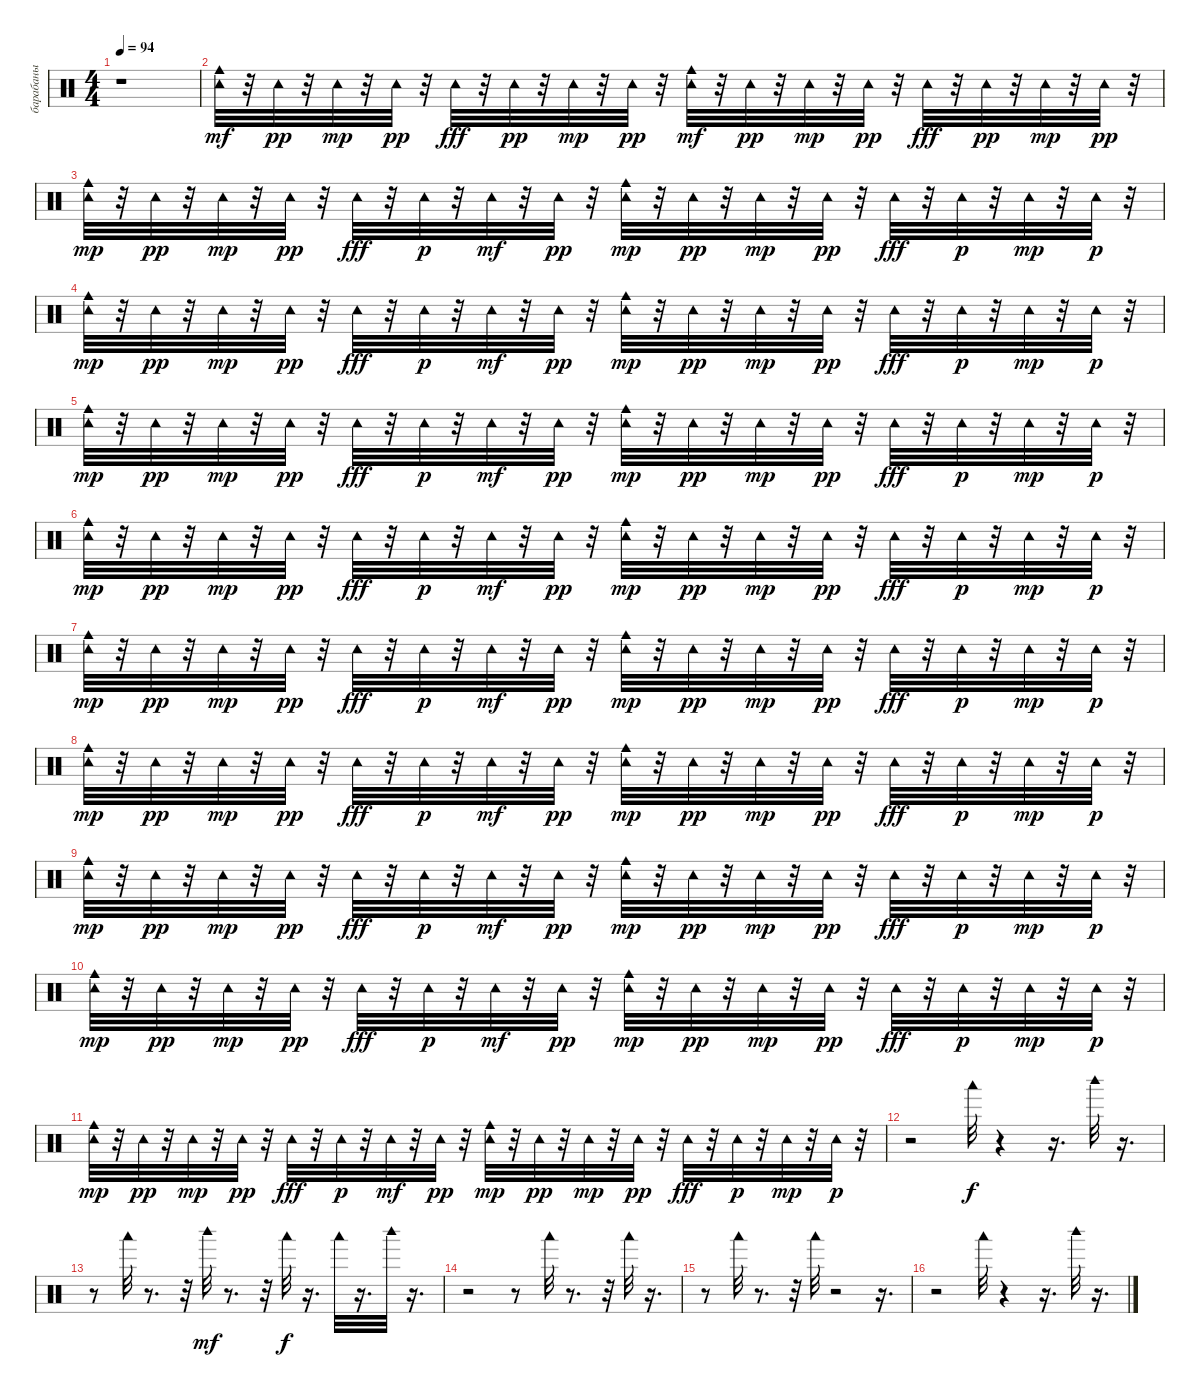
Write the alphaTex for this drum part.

\track ("барабаны" "барабаны") {instrument percussion}
\staff {score}
\articulation defaults
\ts (4 4)
\tempo 94
\clef neutral
\ks c
r.1{dy p} |
("Tambourine (hit)" "Cowbell medium (hit)").32{dy mf balance 8} r.32 "Tambourine (hit)".32{dy pp} r.32 "Tambourine (hit)".32{dy mp} r.32 "Tambourine (hit)".32{dy pp} r.32 "Tambourine (hit)".32{dy fff} r.32 "Tambourine (hit)".32{dy pp} r.32 "Tambourine (hit)".32{dy mp} r.32 "Tambourine (hit)".32{dy pp} r.32 ("Tambourine (hit)" "Cowbell medium (hit)").32{dy mf} r.32 "Tambourine (hit)".32{dy pp} r.32 "Tambourine (hit)".32{dy mp} r.32 "Tambourine (hit)".32{dy pp} r.32 "Tambourine (hit)".32{dy fff} r.32 "Tambourine (hit)".32{dy pp} r.32 "Tambourine (hit)".32{dy mp} r.32 "Tambourine (hit)".32{dy pp} r.32 |
("Cowbell medium (hit)" "Tambourine (hit)").32{dy mp} r.32 "Tambourine (hit)".32{dy pp} r.32 "Tambourine (hit)".32{dy mp} r.32 "Tambourine (hit)".32{dy pp} r.32 "Tambourine (hit)".32{dy fff} r.32 "Tambourine (hit)".32{dy p} r.32 "Tambourine (hit)".32{dy mf} r.32 "Tambourine (hit)".32{dy pp} r.32 ("Tambourine (hit)" "Cowbell medium (hit)").32{dy mp} r.32 "Tambourine (hit)".32{dy pp} r.32 "Tambourine (hit)".32{dy mp} r.32 "Tambourine (hit)".32{dy pp} r.32 "Tambourine (hit)".32{dy fff} r.32 "Tambourine (hit)".32{dy p} r.32 "Tambourine (hit)".32{dy mp} r.32 "Tambourine (hit)".32{dy p} r.32 |
("Tambourine (hit)" "Cowbell medium (hit)").32{dy mp} r.32 "Tambourine (hit)".32{dy pp} r.32 "Tambourine (hit)".32{dy mp} r.32 "Tambourine (hit)".32{dy pp} r.32 "Tambourine (hit)".32{dy fff} r.32 "Tambourine (hit)".32{dy p} r.32 "Tambourine (hit)".32{dy mf} r.32 "Tambourine (hit)".32{dy pp} r.32 ("Cowbell medium (hit)" "Tambourine (hit)").32{dy mp} r.32 "Tambourine (hit)".32{dy pp} r.32 "Tambourine (hit)".32{dy mp} r.32 "Tambourine (hit)".32{dy pp} r.32 "Tambourine (hit)".32{dy fff} r.32 "Tambourine (hit)".32{dy p} r.32 "Tambourine (hit)".32{dy mp} r.32 "Tambourine (hit)".32{dy p} r.32 |
("Cowbell medium (hit)" "Tambourine (hit)").32{dy mp} r.32 "Tambourine (hit)".32{dy pp} r.32 "Tambourine (hit)".32{dy mp} r.32 "Tambourine (hit)".32{dy pp} r.32 "Tambourine (hit)".32{dy fff} r.32 "Tambourine (hit)".32{dy p} r.32 "Tambourine (hit)".32{dy mf} r.32 "Tambourine (hit)".32{dy pp} r.32 ("Tambourine (hit)" "Cowbell medium (hit)").32{dy mp} r.32 "Tambourine (hit)".32{dy pp} r.32 "Tambourine (hit)".32{dy mp} r.32 "Tambourine (hit)".32{dy pp} r.32 "Tambourine (hit)".32{dy fff} r.32 "Tambourine (hit)".32{dy p} r.32 "Tambourine (hit)".32{dy mp} r.32 "Tambourine (hit)".32{dy p} r.32 |
("Cowbell medium (hit)" "Tambourine (hit)").32{dy mp} r.32 "Tambourine (hit)".32{dy pp} r.32 "Tambourine (hit)".32{dy mp} r.32 "Tambourine (hit)".32{dy pp} r.32 "Tambourine (hit)".32{dy fff} r.32 "Tambourine (hit)".32{dy p} r.32 "Tambourine (hit)".32{dy mf} r.32 "Tambourine (hit)".32{dy pp} r.32 ("Cowbell medium (hit)" "Tambourine (hit)").32{dy mp} r.32 "Tambourine (hit)".32{dy pp} r.32 "Tambourine (hit)".32{dy mp} r.32 "Tambourine (hit)".32{dy pp} r.32 "Tambourine (hit)".32{dy fff} r.32 "Tambourine (hit)".32{dy p} r.32 "Tambourine (hit)".32{dy mp} r.32 "Tambourine (hit)".32{dy p} r.32 |
("Cowbell medium (hit)" "Tambourine (hit)").32{dy mp} r.32 "Tambourine (hit)".32{dy pp} r.32 "Tambourine (hit)".32{dy mp} r.32 "Tambourine (hit)".32{dy pp} r.32 "Tambourine (hit)".32{dy fff} r.32 "Tambourine (hit)".32{dy p} r.32 "Tambourine (hit)".32{dy mf} r.32 "Tambourine (hit)".32{dy pp} r.32 ("Tambourine (hit)" "Cowbell medium (hit)").32{dy mp} r.32 "Tambourine (hit)".32{dy pp} r.32 "Tambourine (hit)".32{dy mp} r.32 "Tambourine (hit)".32{dy pp} r.32 "Tambourine (hit)".32{dy fff} r.32 "Tambourine (hit)".32{dy p} r.32 "Tambourine (hit)".32{dy mp} r.32 "Tambourine (hit)".32{dy p} r.32 |
("Cowbell medium (hit)" "Tambourine (hit)").32{dy mp} r.32 "Tambourine (hit)".32{dy pp} r.32 "Tambourine (hit)".32{dy mp} r.32 "Tambourine (hit)".32{dy pp} r.32 "Tambourine (hit)".32{dy fff} r.32 "Tambourine (hit)".32{dy p} r.32 "Tambourine (hit)".32{dy mf} r.32 "Tambourine (hit)".32{dy pp} r.32 ("Tambourine (hit)" "Cowbell medium (hit)").32{dy mp} r.32 "Tambourine (hit)".32{dy pp} r.32 "Tambourine (hit)".32{dy mp} r.32 "Tambourine (hit)".32{dy pp} r.32 "Tambourine (hit)".32{dy fff} r.32 "Tambourine (hit)".32{dy p} r.32 "Tambourine (hit)".32{dy mp} r.32 "Tambourine (hit)".32{dy p} r.32 |
("Tambourine (hit)" "Cowbell medium (hit)").32{dy mp} r.32 "Tambourine (hit)".32{dy pp} r.32 "Tambourine (hit)".32{dy mp} r.32 "Tambourine (hit)".32{dy pp} r.32 "Tambourine (hit)".32{dy fff} r.32 "Tambourine (hit)".32{dy p} r.32 "Tambourine (hit)".32{dy mf} r.32 "Tambourine (hit)".32{dy pp} r.32 ("Cowbell medium (hit)" "Tambourine (hit)").32{dy mp} r.32 "Tambourine (hit)".32{dy pp} r.32 "Tambourine (hit)".32{dy mp} r.32 "Tambourine (hit)".32{dy pp} r.32 "Tambourine (hit)".32{dy fff} r.32 "Tambourine (hit)".32{dy p} r.32 "Tambourine (hit)".32{dy mp} r.32 "Tambourine (hit)".32{dy p} r.32 |
("Tambourine (hit)" "Cowbell medium (hit)").32{dy mp} r.32 "Tambourine (hit)".32{dy pp} r.32 "Tambourine (hit)".32{dy mp} r.32 "Tambourine (hit)".32{dy pp} r.32 "Tambourine (hit)".32{dy fff} r.32 "Tambourine (hit)".32{dy p} r.32 "Tambourine (hit)".32{dy mf} r.32 "Tambourine (hit)".32{dy pp} r.32 ("Tambourine (hit)" "Cowbell medium (hit)").32{dy mp} r.32 "Tambourine (hit)".32{dy pp} r.32 "Tambourine (hit)".32{dy mp} r.32 "Tambourine (hit)".32{dy pp} r.32 "Tambourine (hit)".32{dy fff} r.32 "Tambourine (hit)".32{dy p} r.32 "Tambourine (hit)".32{dy mp} r.32 "Tambourine (hit)".32{dy p} r.32 |
("Cowbell medium (hit)" "Tambourine (hit)").32{dy mp} r.32 "Tambourine (hit)".32{dy pp} r.32 "Tambourine (hit)".32{dy mp} r.32 "Tambourine (hit)".32{dy pp} r.32 "Tambourine (hit)".32{dy fff} r.32 "Tambourine (hit)".32{dy p} r.32 "Tambourine (hit)".32{dy mf} r.32 "Tambourine (hit)".32{dy pp} r.32 ("Cowbell medium (hit)" "Tambourine (hit)").32{dy mp} r.32 "Tambourine (hit)".32{dy pp} r.32 "Tambourine (hit)".32{dy mp} r.32 "Tambourine (hit)".32{dy pp} r.32 "Tambourine (hit)".32{dy fff} r.32 "Tambourine (hit)".32{dy p} r.32 "Tambourine (hit)".32{dy mp} r.32 "Tambourine (hit)".32{dy p} r.32 |
r.2 "Woodblock low (hit)".32{dy f} r.4 r.16{d} "Woodblock high (hit)".32 r.16{d} |
r.8 "Woodblock low (hit)".32 r.8{d} r.32 "Woodblock high (hit)".32{dy mf} r.8{d} r.32 "Woodblock low (hit)".32{dy f} r.16{d} "Woodblock low (hit)".32 r.16{d} "Woodblock high (hit)".32 r.16{d} |
r.2 r.8 "Woodblock low (hit)".32 r.8{d} r.32 "Woodblock low (hit)".32 r.16{d} |
r.8 "Woodblock low (hit)".32 r.8{d} r.32 "Woodblock low (hit)".32 r.2 r.16{d} |
r.2 "Woodblock low (hit)".32 r.4 r.16{d} "Woodblock high (hit)".32 r.16{d}
